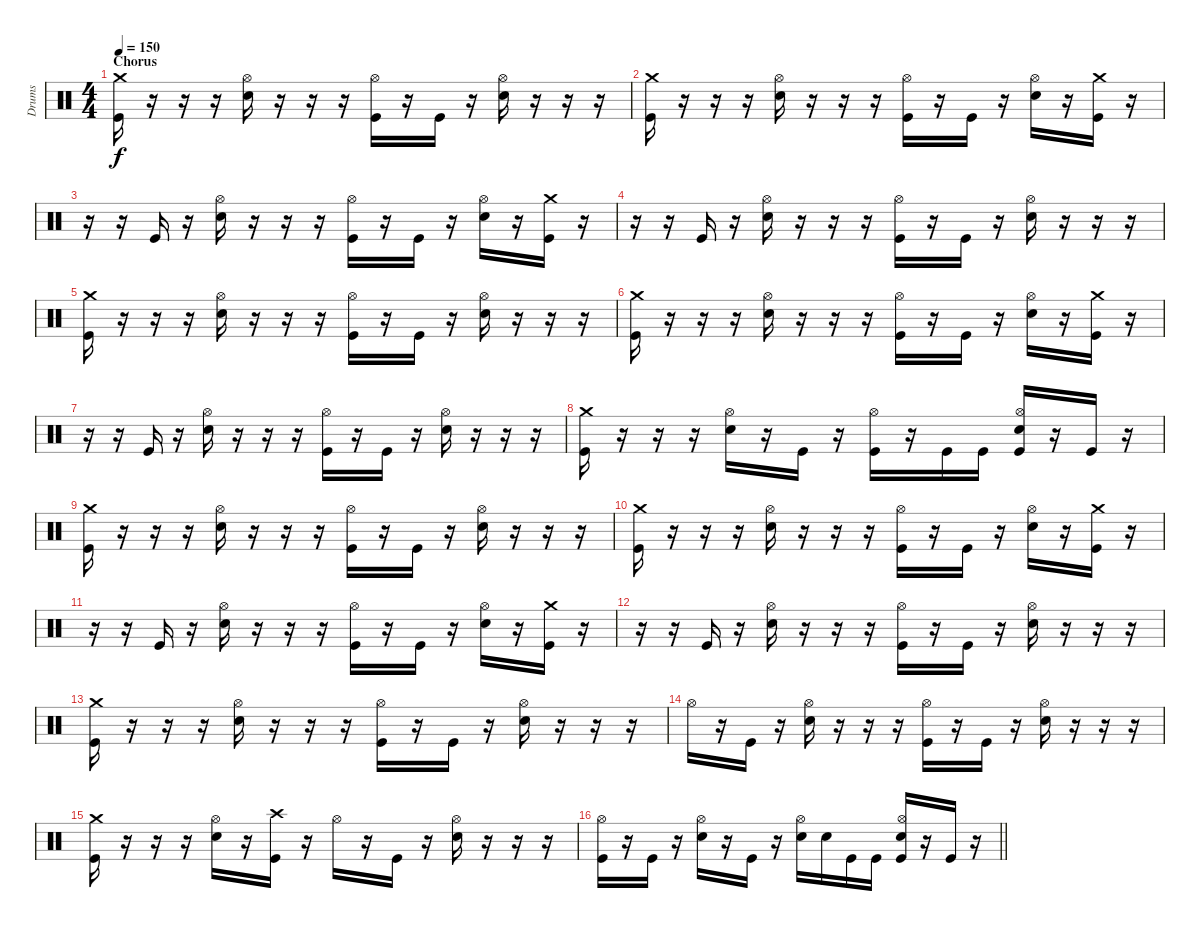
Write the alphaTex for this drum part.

\track ("Drums" "Drums") {instrument percussion}
\staff {score}
\articulation defaults
\ts (4 4)
\section ("" "Chorus")
\tempo 150
\clef neutral
\ks c
("Crash medium (hit)" "Kick (hit)").16{dy f} r.16 r.16 r.16 ("Hi-Hat (open)" "Snare (hit) 2").16 r.16 r.16 r.16 ("Hi-Hat (open)" "Kick (hit)").16 r.16 "Kick (hit)".16 r.16 ("Hi-Hat (open)" "Snare (hit) 2").16 r.16 r.16 r.16 |
("Crash medium (hit)" "Kick (hit)").16 r.16 r.16 r.16 ("Hi-Hat (open)" "Snare (hit) 2").16 r.16 r.16 r.16 ("Hi-Hat (open)" "Kick (hit)").16 r.16 "Kick (hit)".16 r.16 ("Hi-Hat (open)" "Snare (hit) 2").16 r.16 ("Crash medium (hit)" "Kick (hit)").16 r.16 |
r.16 r.16 "Kick (hit)".16 r.16 ("Hi-Hat (open)" "Snare (hit) 2").16 r.16 r.16 r.16 ("Hi-Hat (open)" "Kick (hit)").16 r.16 "Kick (hit)".16 r.16 ("Hi-Hat (open)" "Snare (hit) 2").16 r.16 ("Crash medium (hit)" "Kick (hit)").16 r.16 |
r.16 r.16 "Kick (hit)".16 r.16 ("Hi-Hat (open)" "Snare (hit) 2").16 r.16 r.16 r.16 ("Hi-Hat (open)" "Kick (hit)").16 r.16 "Kick (hit)".16 r.16 ("Hi-Hat (open)" "Snare (hit) 2").16 r.16 r.16 r.16 |
("Crash medium (hit)" "Kick (hit)").16 r.16 r.16 r.16 ("Hi-Hat (open)" "Snare (hit) 2").16 r.16 r.16 r.16 ("Hi-Hat (open)" "Kick (hit)").16 r.16 "Kick (hit)".16 r.16 ("Hi-Hat (open)" "Snare (hit) 2").16 r.16 r.16 r.16 |
("Crash medium (hit)" "Kick (hit)").16 r.16 r.16 r.16 ("Hi-Hat (open)" "Snare (hit) 2").16 r.16 r.16 r.16 ("Hi-Hat (open)" "Kick (hit)").16 r.16 "Kick (hit)".16 r.16 ("Hi-Hat (open)" "Snare (hit) 2").16 r.16 ("Crash medium (hit)" "Kick (hit)").16 r.16 |
r.16 r.16 "Kick (hit)".16 r.16 ("Hi-Hat (open)" "Snare (hit) 2").16 r.16 r.16 r.16 ("Hi-Hat (open)" "Kick (hit)").16 r.16 "Kick (hit)".16 r.16 ("Hi-Hat (open)" "Snare (hit) 2").16 r.16 r.16 r.16 |
("Crash medium (hit)" "Kick (hit)").16 r.16 r.16 r.16 ("Hi-Hat (open)" "Snare (hit) 2").16 r.16 "Kick (hit)".16 r.16 ("Hi-Hat (open)" "Kick (hit)").16 r.16 "Kick (hit)".16 "Kick (hit)".16 ("Hi-Hat (open)" "Snare (hit) 2" "Kick (hit)").16 r.16 "Kick (hit)".16 r.16 |
("Crash medium (hit)" "Kick (hit)").16 r.16 r.16 r.16 ("Hi-Hat (open)" "Snare (hit) 2").16 r.16 r.16 r.16 ("Hi-Hat (open)" "Kick (hit)").16 r.16 "Kick (hit)".16 r.16 ("Hi-Hat (open)" "Snare (hit) 2").16 r.16 r.16 r.16 |
("Crash medium (hit)" "Kick (hit)").16 r.16 r.16 r.16 ("Hi-Hat (open)" "Snare (hit) 2").16 r.16 r.16 r.16 ("Hi-Hat (open)" "Kick (hit)").16 r.16 "Kick (hit)".16 r.16 ("Hi-Hat (open)" "Snare (hit) 2").16 r.16 ("Crash medium (hit)" "Kick (hit)").16 r.16 |
r.16 r.16 "Kick (hit)".16 r.16 ("Hi-Hat (open)" "Snare (hit) 2").16 r.16 r.16 r.16 ("Hi-Hat (open)" "Kick (hit)").16 r.16 "Kick (hit)".16 r.16 ("Hi-Hat (open)" "Snare (hit) 2").16 r.16 ("Crash medium (hit)" "Kick (hit)").16 r.16 |
r.16 r.16 "Kick (hit)".16 r.16 ("Hi-Hat (open)" "Snare (hit) 2").16 r.16 r.16 r.16 ("Hi-Hat (open)" "Kick (hit)").16 r.16 "Kick (hit)".16 r.16 ("Hi-Hat (open)" "Snare (hit) 2").16 r.16 r.16 r.16 |
("Crash medium (hit)" "Kick (hit)").16 r.16 r.16 r.16 ("Hi-Hat (open)" "Snare (hit) 2").16 r.16 r.16 r.16 ("Hi-Hat (open)" "Kick (hit)").16 r.16 "Kick (hit)".16 r.16 ("Hi-Hat (open)" "Snare (hit) 2").16 r.16 r.16 r.16 |
"Hi-Hat (open)".16 r.16 "Kick (hit)".16 r.16 ("Hi-Hat (open)" "Snare (hit) 2").16 r.16 r.16 r.16 ("Hi-Hat (open)" "Kick (hit)").16 r.16 "Kick (hit)".16 r.16 ("Hi-Hat (open)" "Snare (hit) 2").16 r.16 r.16 r.16 |
("Crash medium (hit)" "Kick (hit)").16 r.16 r.16 r.16 ("Hi-Hat (open)" "Snare (hit) 2").16 r.16 ("Crash high (hit)" "Kick (hit)").16 r.16 "Hi-Hat (open)".16 r.16 "Kick (hit)".16 r.16 ("Hi-Hat (open)" "Snare (hit) 2").16 r.16 r.16 r.16 |
\barLineRight lightlight
("Hi-Hat (open)" "Kick (hit)").16 r.16 "Kick (hit)".16 r.16 ("Hi-Hat (open)" "Snare (hit) 2").16 r.16 "Kick (hit)".16 r.16 ("Hi-Hat (open)" "Snare (hit) 2").16 "Snare (hit) 2".16 "Kick (hit)".16 "Kick (hit)".16 ("Hi-Hat (open)" "Snare (hit) 2" "Kick (hit)").16 r.16 "Kick (hit)".16 r.16
